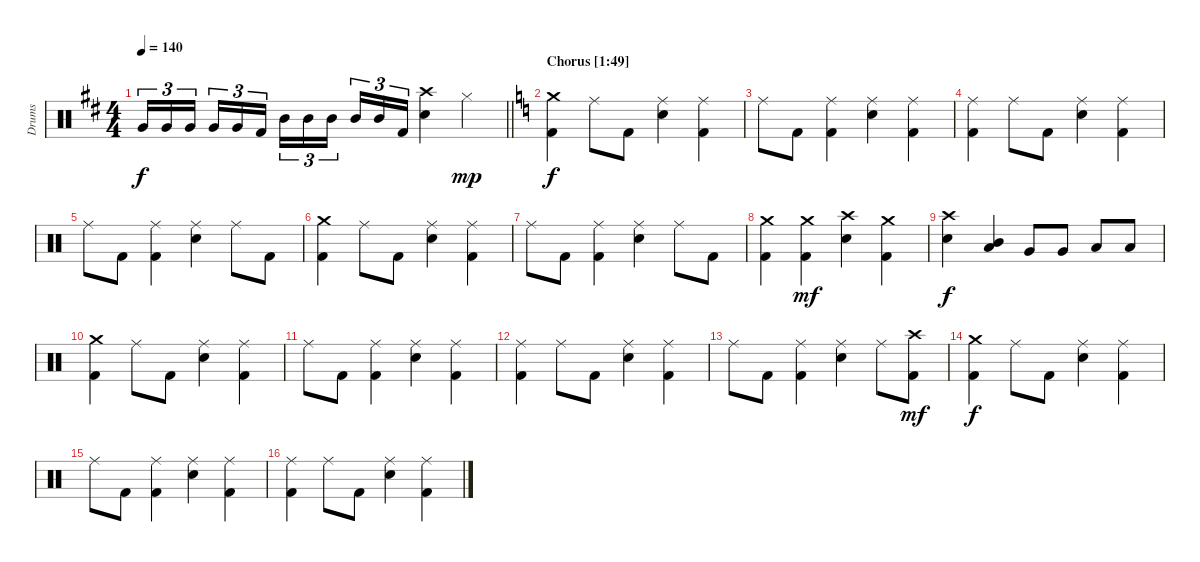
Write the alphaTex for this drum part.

\track ("Drums" "Drums") {instrument percussion}
\staff {score}
\articulation defaults
\ts (4 4)
\tempo 140
\clef neutral
\barLineRight lightlight
\ks bminor "Very Low Tom (hit)".16{tu (3 2) dy f} "Very Low Tom (hit)".16{tu (3 2)} "Very Low Tom (hit)".16{tu (3 2) beam splitsecondary} "Very Low Tom (hit)".16{tu (3 2)} "Very Low Tom (hit)".16{tu (3 2)} "Kick (hit) 2".16{tu (3 2)} "Mid Tom (hit)".16{tu (3 2)} "Mid Tom (hit)".16{tu (3 2)} "Mid Tom (hit)".16{tu (3 2) beam splitsecondary} "Mid Tom (hit)".16{tu (3 2)} "Mid Tom (hit)".16{tu (3 2)} "Kick (hit) 2".16{tu (3 2)}
("Crash high (hit)" "Snare (hit) 2").4 "Hi-Hat (closed)".4{dy mp} |
\section ("" "Chorus [1:49]")
\ks aminor
("Crash medium (hit)" "Kick (hit) 2").4{dy f} "Ride (middle)".8 "Kick (hit) 2".8 ("Ride (middle)" "Snare (hit) 2").4 ("Ride (middle)" "Kick (hit) 2").4 |
"Ride (middle)".8 "Kick (hit) 2".8 ("Ride (middle)" "Kick (hit) 2").4 ("Ride (middle)" "Snare (hit) 2").4 ("Ride (middle)" "Kick (hit) 2").4 |
("Ride (middle)" "Kick (hit) 2").4 "Ride (middle)".8 "Kick (hit) 2".8 ("Ride (middle)" "Snare (hit) 2").4 ("Ride (middle)" "Kick (hit) 2").4 |
"Ride (middle)".8 "Kick (hit) 2".8 ("Ride (middle)" "Kick (hit) 2").4 ("Ride (middle)" "Snare (hit) 2").4 "Ride (middle)".8 "Kick (hit) 2".8 |
("Crash medium (hit)" "Kick (hit) 2").4 "Ride (middle)".8 "Kick (hit) 2".8 ("Ride (middle)" "Snare (hit) 2").4 ("Ride (middle)" "Kick (hit) 2").4 |
"Ride (middle)".8 "Kick (hit) 2".8 ("Ride (middle)" "Kick (hit) 2").4 ("Ride (middle)" "Snare (hit) 2").4 "Ride (middle)".8 "Kick (hit) 2".8 |
("Crash medium (hit)" "Kick (hit) 2").4 ("Crash medium (hit)" "Kick (hit) 2").4{dy mf} ("Crash high (hit)" "Snare (hit) 2").4 ("Crash medium (hit)" "Kick (hit) 2").4 |
("Crash high (hit)" "Snare (hit) 2").4{dy f} ("Mid Tom (hit)" "Low Tom (hit)").4 "Very Low Tom (hit)".8 "Very Low Tom (hit)".8 "Low Floor Tom (hit)".8 "Low Floor Tom (hit)".8 |
("Crash medium (hit)" "Kick (hit) 2").4 "Ride (middle)".8 "Kick (hit) 2".8 ("Ride (middle)" "Snare (hit) 2").4 ("Ride (middle)" "Kick (hit) 2").4 |
"Ride (middle)".8 "Kick (hit) 2".8 ("Ride (middle)" "Kick (hit) 2").4 ("Ride (middle)" "Snare (hit) 2").4 ("Ride (middle)" "Kick (hit) 2").4 |
("Ride (middle)" "Kick (hit) 2").4 "Ride (middle)".8 "Kick (hit) 2".8 ("Ride (middle)" "Snare (hit) 2").4 ("Ride (middle)" "Kick (hit) 2").4 |
"Ride (middle)".8 "Kick (hit) 2".8 ("Ride (middle)" "Kick (hit) 2").4 ("Ride (middle)" "Snare (hit) 2").4 "Ride (middle)".8 ("Crash high (hit)" "Kick (hit) 2").8{dy mf} |
("Crash medium (hit)" "Kick (hit) 2").4{dy f} "Ride (middle)".8 "Kick (hit) 2".8 ("Ride (middle)" "Snare (hit) 2").4 ("Ride (middle)" "Kick (hit) 2").4 |
"Ride (middle)".8 "Kick (hit) 2".8 ("Ride (middle)" "Kick (hit) 2").4 ("Ride (middle)" "Snare (hit) 2").4 ("Ride (middle)" "Kick (hit) 2").4 |
("Ride (middle)" "Kick (hit) 2").4 "Ride (middle)".8 "Kick (hit) 2".8 ("Ride (middle)" "Snare (hit) 2").4 ("Ride (middle)" "Kick (hit) 2").4
